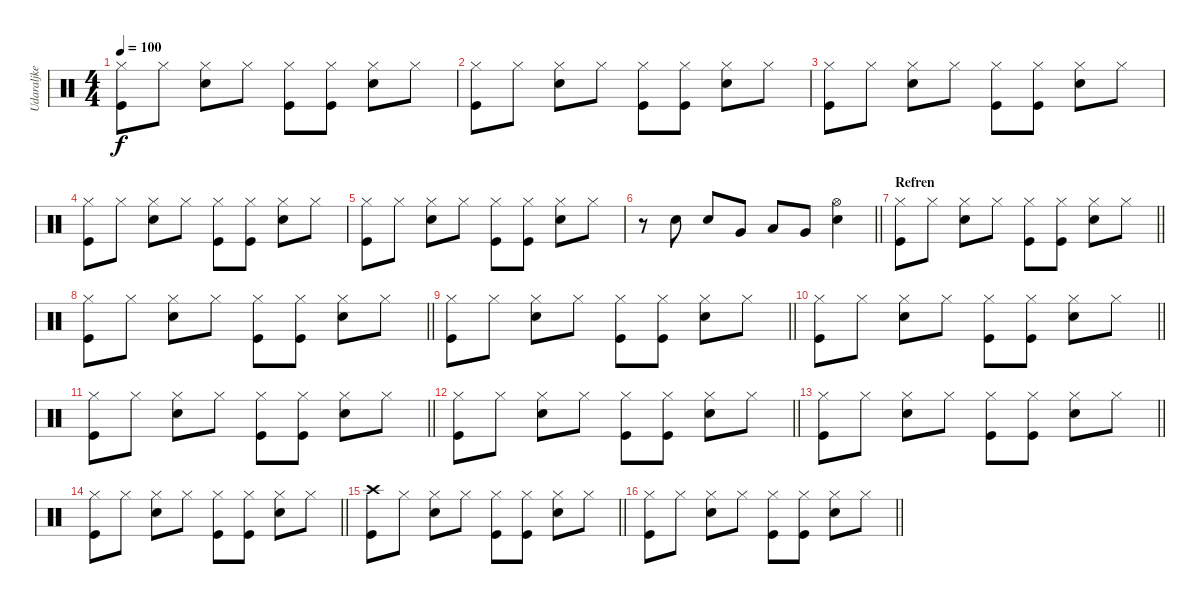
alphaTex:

\track ("Udaraljke" "Udaraljke") {instrument percussion}
\staff {score}
\articulation defaults
\ts (4 4)
\tempo 100
\clef neutral
\ks c
("Hi-Hat (closed)" "Kick (hit)").8{dy f} "Hi-Hat (closed)".8 ("Hi-Hat (closed)" "Snare (hit) 2").8 "Hi-Hat (closed)".8 ("Hi-Hat (closed)" "Kick (hit)").8 ("Hi-Hat (closed)" "Kick (hit)").8 ("Hi-Hat (closed)" "Snare (hit) 2").8 "Hi-Hat (closed)".8 |
("Hi-Hat (closed)" "Kick (hit)").8 "Hi-Hat (closed)".8 ("Hi-Hat (closed)" "Snare (hit) 2").8 "Hi-Hat (closed)".8 ("Hi-Hat (closed)" "Kick (hit)").8 ("Hi-Hat (closed)" "Kick (hit)").8 ("Hi-Hat (closed)" "Snare (hit) 2").8 "Hi-Hat (closed)".8 |
("Hi-Hat (closed)" "Kick (hit)").8 "Hi-Hat (closed)".8 ("Hi-Hat (closed)" "Snare (hit) 2").8 "Hi-Hat (closed)".8 ("Hi-Hat (closed)" "Kick (hit)").8 ("Hi-Hat (closed)" "Kick (hit)").8 ("Hi-Hat (closed)" "Snare (hit) 2").8 "Hi-Hat (closed)".8 |
("Hi-Hat (closed)" "Kick (hit)").8 "Hi-Hat (closed)".8 ("Hi-Hat (closed)" "Snare (hit) 2").8 "Hi-Hat (closed)".8 ("Hi-Hat (closed)" "Kick (hit)").8 ("Hi-Hat (closed)" "Kick (hit)").8 ("Hi-Hat (closed)" "Snare (hit) 2").8 "Hi-Hat (closed)".8 |
("Hi-Hat (closed)" "Kick (hit)").8 "Hi-Hat (closed)".8 ("Hi-Hat (closed)" "Snare (hit) 2").8 "Hi-Hat (closed)".8 ("Hi-Hat (closed)" "Kick (hit)").8 ("Hi-Hat (closed)" "Kick (hit)").8 ("Hi-Hat (closed)" "Snare (hit) 2").8 "Hi-Hat (closed)".8 |
\barLineRight lightlight
r.8 "Electric Snare (hit)".8 "Electric Snare (hit)".8 "Very Low Tom (hit)".8 "Low Tom (hit)".8 "Very Low Tom (hit)".8 ("Hi-Hat (open)" "Electric Snare (hit)").4 |
\section ("" "Refren")
\barLineRight lightlight
("Hi-Hat (closed)" "Kick (hit)").8 "Hi-Hat (closed)".8 ("Hi-Hat (closed)" "Snare (hit) 2").8 "Hi-Hat (closed)".8 ("Hi-Hat (closed)" "Kick (hit)").8 ("Hi-Hat (closed)" "Kick (hit)").8 ("Hi-Hat (closed)" "Snare (hit) 2").8 "Hi-Hat (closed)".8 |
\barLineRight lightlight
("Hi-Hat (closed)" "Kick (hit)").8 "Hi-Hat (closed)".8 ("Hi-Hat (closed)" "Snare (hit) 2").8 "Hi-Hat (closed)".8 ("Hi-Hat (closed)" "Kick (hit)").8 ("Hi-Hat (closed)" "Kick (hit)").8 ("Hi-Hat (closed)" "Snare (hit) 2").8 "Hi-Hat (closed)".8 |
\barLineRight lightlight
("Hi-Hat (closed)" "Kick (hit)").8 "Hi-Hat (closed)".8 ("Hi-Hat (closed)" "Snare (hit) 2").8 "Hi-Hat (closed)".8 ("Hi-Hat (closed)" "Kick (hit)").8 ("Hi-Hat (closed)" "Kick (hit)").8 ("Hi-Hat (closed)" "Snare (hit) 2").8 "Hi-Hat (closed)".8 |
\barLineRight lightlight
("Hi-Hat (closed)" "Kick (hit)").8 "Hi-Hat (closed)".8 ("Hi-Hat (closed)" "Snare (hit) 2").8 "Hi-Hat (closed)".8 ("Hi-Hat (closed)" "Kick (hit)").8 ("Hi-Hat (closed)" "Kick (hit)").8 ("Hi-Hat (closed)" "Snare (hit) 2").8 "Hi-Hat (closed)".8 |
\barLineRight lightlight
("Hi-Hat (closed)" "Kick (hit)").8 "Hi-Hat (closed)".8 ("Hi-Hat (closed)" "Snare (hit) 2").8 "Hi-Hat (closed)".8 ("Hi-Hat (closed)" "Kick (hit)").8 ("Hi-Hat (closed)" "Kick (hit)").8 ("Hi-Hat (closed)" "Snare (hit) 2").8 "Hi-Hat (closed)".8 |
\barLineRight lightlight
("Hi-Hat (closed)" "Kick (hit)").8 "Hi-Hat (closed)".8 ("Hi-Hat (closed)" "Snare (hit) 2").8 "Hi-Hat (closed)".8 ("Hi-Hat (closed)" "Kick (hit)").8 ("Hi-Hat (closed)" "Kick (hit)").8 ("Hi-Hat (closed)" "Snare (hit) 2").8 "Hi-Hat (closed)".8 |
\barLineRight lightlight
("Hi-Hat (closed)" "Kick (hit)").8 "Hi-Hat (closed)".8 ("Hi-Hat (closed)" "Snare (hit) 2").8 "Hi-Hat (closed)".8 ("Hi-Hat (closed)" "Kick (hit)").8 ("Hi-Hat (closed)" "Kick (hit)").8 ("Hi-Hat (closed)" "Snare (hit) 2").8 "Hi-Hat (closed)".8 |
\barLineRight lightlight
("Hi-Hat (closed)" "Kick (hit)").8 "Hi-Hat (closed)".8 ("Hi-Hat (closed)" "Snare (hit) 2").8 "Hi-Hat (closed)".8 ("Hi-Hat (closed)" "Kick (hit)").8 ("Hi-Hat (closed)" "Kick (hit)").8 ("Hi-Hat (closed)" "Snare (hit) 2").8 "Hi-Hat (closed)".8 |
\barLineRight lightlight
("Crash high (hit)" "Kick (hit)").8 "Hi-Hat (closed)".8 ("Hi-Hat (closed)" "Snare (hit) 2").8 "Hi-Hat (closed)".8 ("Hi-Hat (closed)" "Kick (hit)").8 ("Hi-Hat (closed)" "Kick (hit)").8 ("Hi-Hat (closed)" "Snare (hit) 2").8 "Hi-Hat (closed)".8 |
\barLineRight lightlight
("Hi-Hat (closed)" "Kick (hit)").8 "Hi-Hat (closed)".8 ("Hi-Hat (closed)" "Snare (hit) 2").8 "Hi-Hat (closed)".8 ("Hi-Hat (closed)" "Kick (hit)").8 ("Hi-Hat (closed)" "Kick (hit)").8 ("Hi-Hat (closed)" "Snare (hit) 2").8 "Hi-Hat (closed)".8
